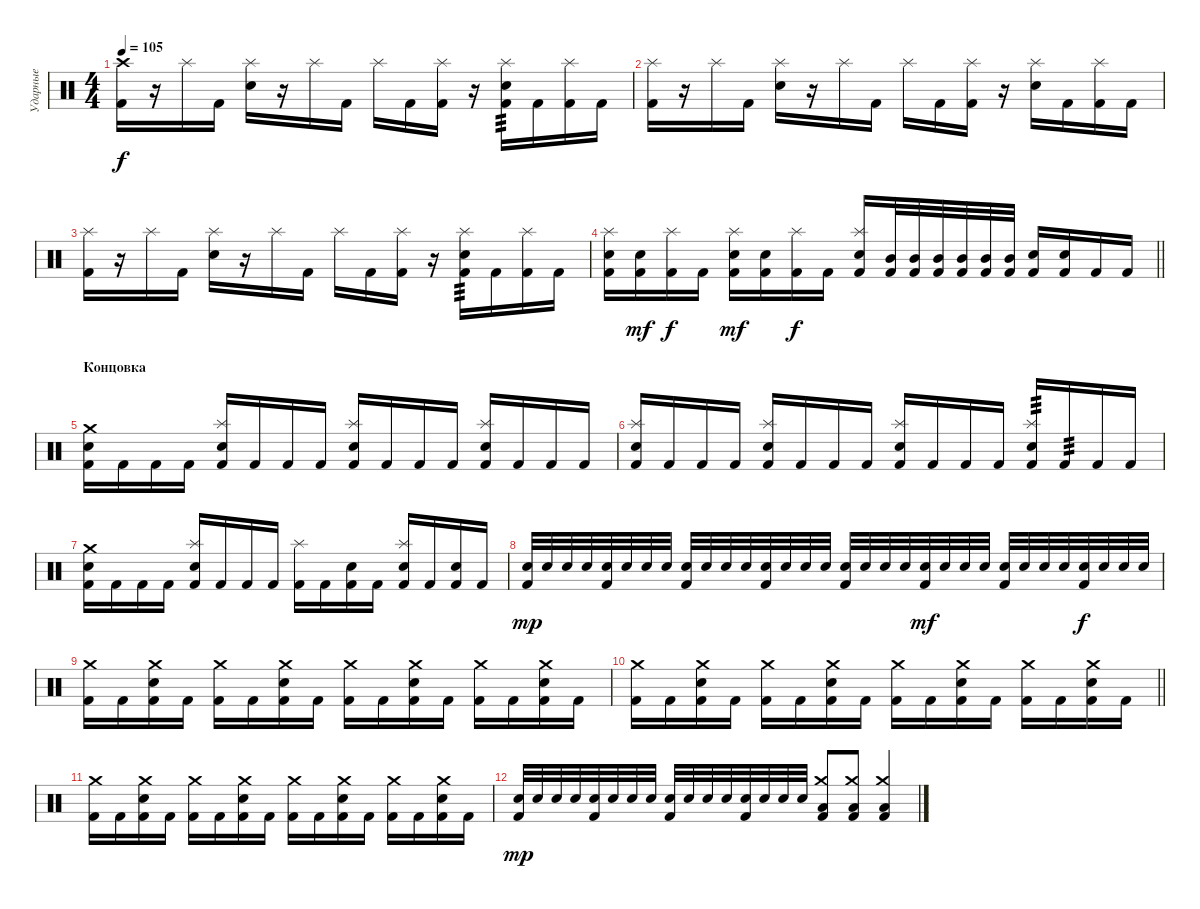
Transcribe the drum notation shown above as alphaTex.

\track ("Ударные" "Ударные") {instrument percussion}
\staff {score}
\articulation defaults
\ts (4 4)
\tempo 105
\clef neutral
\ks c
("Crash high (hit)" "Kick (hit) 2").16{dy f} r.16 "Splash (hit)".16 "Kick (hit) 2".16 ("Splash (hit)" "Electric Snare (hit)").16 r.16 "Splash (hit)".16 "Kick (hit) 2".16 "Splash (hit)".16 "Kick (hit) 2".16 ("Splash (hit)" "Kick (hit) 2").16 r.16 ("Splash (hit)" "Electric Snare (hit)" "Kick (hit) 2").16{tp 3} "Kick (hit) 2".16 ("Splash (hit)" "Kick (hit) 2").16 "Kick (hit) 2".16 |
("Splash (hit)" "Kick (hit) 2").16 r.16 "Splash (hit)".16 "Kick (hit) 2".16 ("Splash (hit)" "Electric Snare (hit)").16 r.16 "Splash (hit)".16 "Kick (hit) 2".16 "Splash (hit)".16 "Kick (hit) 2".16 ("Splash (hit)" "Kick (hit) 2").16 r.16 ("Splash (hit)" "Electric Snare (hit)").16 "Kick (hit) 2".16 ("Splash (hit)" "Kick (hit) 2").16 "Kick (hit) 2".16 |
("Splash (hit)" "Kick (hit) 2").16 r.16 "Splash (hit)".16 "Kick (hit) 2".16 ("Splash (hit)" "Electric Snare (hit)").16 r.16 "Splash (hit)".16 "Kick (hit) 2".16 "Splash (hit)".16 "Kick (hit) 2".16 ("Splash (hit)" "Kick (hit) 2").16 r.16 ("Splash (hit)" "Electric Snare (hit)" "Kick (hit) 2").16{tp 3} "Kick (hit) 2".16 ("Splash (hit)" "Kick (hit) 2").16 "Kick (hit) 2".16 |
\barLineRight lightlight
("Splash (hit)" "Electric Snare (hit)" "Kick (hit) 2").16 ("Electric Snare (hit)" "Kick (hit) 2").16{dy mf} ("Splash (hit)" "Kick (hit) 2").16{dy f} "Kick (hit) 2".16 ("Splash (hit)" "Electric Snare (hit)" "Kick (hit) 2").16{dy mf} ("Electric Snare (hit)" "Kick (hit) 2").16 ("Splash (hit)" "Kick (hit) 2").16{dy f} "Kick (hit) 2".16 ("Splash (hit)" "Electric Snare (hit)" "Kick (hit) 2").16 ("Mid Tom (hit)" "Kick (hit) 2").32 ("Mid Tom (hit)" "Kick (hit) 2").32 ("Mid Tom (hit)" "Kick (hit) 2").32 ("Mid Tom (hit)" "Kick (hit) 2").32 ("Mid Tom (hit)" "Kick (hit) 2").32 ("Mid Tom (hit)" "Kick (hit) 2").32 ("Electric Snare (hit)" "Kick (hit) 2").16 ("Electric Snare (hit)" "Kick (hit) 2").16 "Kick (hit) 2".16 "Kick (hit) 2".16 |
\section ("" "Концовка")
("Crash medium (hit)" "Electric Snare (hit)" "Kick (hit) 2").16 "Kick (hit) 2".16 "Kick (hit) 2".16 "Kick (hit) 2".16 ("Splash (hit)" "Electric Snare (hit)" "Kick (hit) 2").16 "Kick (hit) 2".16 "Kick (hit) 2".16 "Kick (hit) 2".16 ("Splash (hit)" "Electric Snare (hit)" "Kick (hit) 2").16 "Kick (hit) 2".16 "Kick (hit) 2".16 "Kick (hit) 2".16 ("Splash (hit)" "Electric Snare (hit)" "Kick (hit) 2").16 "Kick (hit) 2".16 "Kick (hit) 2".16 "Kick (hit) 2".16 |
("Splash (hit)" "Electric Snare (hit)" "Kick (hit) 2").16 "Kick (hit) 2".16 "Kick (hit) 2".16 "Kick (hit) 2".16 ("Splash (hit)" "Electric Snare (hit)" "Kick (hit) 2").16 "Kick (hit) 2".16 "Kick (hit) 2".16 "Kick (hit) 2".16 ("Splash (hit)" "Electric Snare (hit)" "Kick (hit) 2").16 "Kick (hit) 2".16 "Kick (hit) 2".16 "Kick (hit) 2".16 ("Splash (hit)" "Electric Snare (hit)" "Kick (hit) 2").16{tp 3} "Kick (hit) 2".16{tp 3} "Kick (hit) 2".16 "Kick (hit) 2".16 |
("Crash medium (hit)" "Electric Snare (hit)" "Kick (hit) 2").16 "Kick (hit) 2".16 "Kick (hit) 2".16 "Kick (hit) 2".16 ("Splash (hit)" "Electric Snare (hit)" "Kick (hit) 2").16 "Kick (hit) 2".16 "Kick (hit) 2".16 "Kick (hit) 2".16 ("Splash (hit)" "Kick (hit) 2").16 "Kick (hit) 2".16 ("Electric Snare (hit)" "Kick (hit) 2").16 "Kick (hit) 2".16 ("Splash (hit)" "Electric Snare (hit)" "Kick (hit) 2").16 "Kick (hit) 2".16 ("Electric Snare (hit)" "Kick (hit) 2").16 "Kick (hit) 2".16 |
("Electric Snare (hit)" "Kick (hit) 2").32{dy mp} "Electric Snare (hit)".32 "Electric Snare (hit)".32 "Electric Snare (hit)".32 ("Electric Snare (hit)" "Kick (hit) 2").32 "Electric Snare (hit)".32 "Electric Snare (hit)".32 "Electric Snare (hit)".32 ("Electric Snare (hit)" "Kick (hit) 2").32 "Electric Snare (hit)".32 "Electric Snare (hit)".32 "Electric Snare (hit)".32 ("Electric Snare (hit)" "Kick (hit) 2").32 "Electric Snare (hit)".32 "Electric Snare (hit)".32 "Electric Snare (hit)".32 ("Electric Snare (hit)" "Kick (hit) 2").32 "Electric Snare (hit)".32 "Electric Snare (hit)".32 "Electric Snare (hit)".32 ("Electric Snare (hit)" "Kick (hit) 2").32{dy mf} "Electric Snare (hit)".32 "Electric Snare (hit)".32 "Electric Snare (hit)".32 ("Electric Snare (hit)" "Kick (hit) 2").32 "Electric Snare (hit)".32 "Electric Snare (hit)".32 "Electric Snare (hit)".32 ("Electric Snare (hit)" "Kick (hit) 2").32{dy f} "Electric Snare (hit)".32 "Electric Snare (hit)".32 "Electric Snare (hit)".32 |
("Crash medium (hit)" "Kick (hit) 2").16 "Kick (hit) 2".16 ("Crash medium (hit)" "Electric Snare (hit)" "Kick (hit) 2").16 "Kick (hit) 2".16 ("Crash medium (hit)" "Kick (hit) 2").16 "Kick (hit) 2".16 ("Crash medium (hit)" "Electric Snare (hit)" "Kick (hit) 2").16 "Kick (hit) 2".16 ("Crash medium (hit)" "Kick (hit) 2").16 "Kick (hit) 2".16 ("Crash medium (hit)" "Electric Snare (hit)" "Kick (hit) 2").16 "Kick (hit) 2".16 ("Crash medium (hit)" "Kick (hit) 2").16 "Kick (hit) 2".16 ("Crash medium (hit)" "Electric Snare (hit)" "Kick (hit) 2").16 "Kick (hit) 2".16 |
\barLineRight lightlight
("Crash medium (hit)" "Kick (hit) 2").16 "Kick (hit) 2".16 ("Crash medium (hit)" "Electric Snare (hit)" "Kick (hit) 2").16 "Kick (hit) 2".16 ("Crash medium (hit)" "Kick (hit) 2").16 "Kick (hit) 2".16 ("Crash medium (hit)" "Electric Snare (hit)" "Kick (hit) 2").16 "Kick (hit) 2".16 ("Crash medium (hit)" "Kick (hit) 2").16 "Kick (hit) 2".16 ("Crash medium (hit)" "Electric Snare (hit)" "Kick (hit) 2").16 "Kick (hit) 2".16 ("Crash medium (hit)" "Kick (hit) 2").16 "Kick (hit) 2".16 ("Crash medium (hit)" "Electric Snare (hit)" "Kick (hit) 2").16 "Kick (hit) 2".16 |
("Crash medium (hit)" "Kick (hit) 2").16 "Kick (hit) 2".16 ("Crash medium (hit)" "Electric Snare (hit)" "Kick (hit) 2").16 "Kick (hit) 2".16 ("Crash medium (hit)" "Kick (hit) 2").16 "Kick (hit) 2".16 ("Crash medium (hit)" "Electric Snare (hit)" "Kick (hit) 2").16 "Kick (hit) 2".16 ("Crash medium (hit)" "Kick (hit) 2").16 "Kick (hit) 2".16 ("Crash medium (hit)" "Electric Snare (hit)" "Kick (hit) 2").16 "Kick (hit) 2".16 ("Crash medium (hit)" "Kick (hit) 2").16 "Kick (hit) 2".16 ("Crash medium (hit)" "Electric Snare (hit)" "Kick (hit) 2").16 "Kick (hit) 2".16 |
("Electric Snare (hit)" "Kick (hit) 2").32{dy mp} "Electric Snare (hit)".32 "Electric Snare (hit)".32 "Electric Snare (hit)".32 ("Electric Snare (hit)" "Kick (hit) 2").32 "Electric Snare (hit)".32 "Electric Snare (hit)".32 "Electric Snare (hit)".32 ("Electric Snare (hit)" "Kick (hit) 2").32 "Electric Snare (hit)".32 "Electric Snare (hit)".32 "Electric Snare (hit)".32 ("Electric Snare (hit)" "Kick (hit) 2").32 "Electric Snare (hit)".32 "Electric Snare (hit)".32 "Electric Snare (hit)".32 ("Crash medium (hit)" "Low Tom (hit)" "Kick (hit) 2").8 ("Crash medium (hit)" "Low Tom (hit)" "Kick (hit) 2").8 ("Crash medium (hit)" "Low Tom (hit)" "Kick (hit) 2").4
